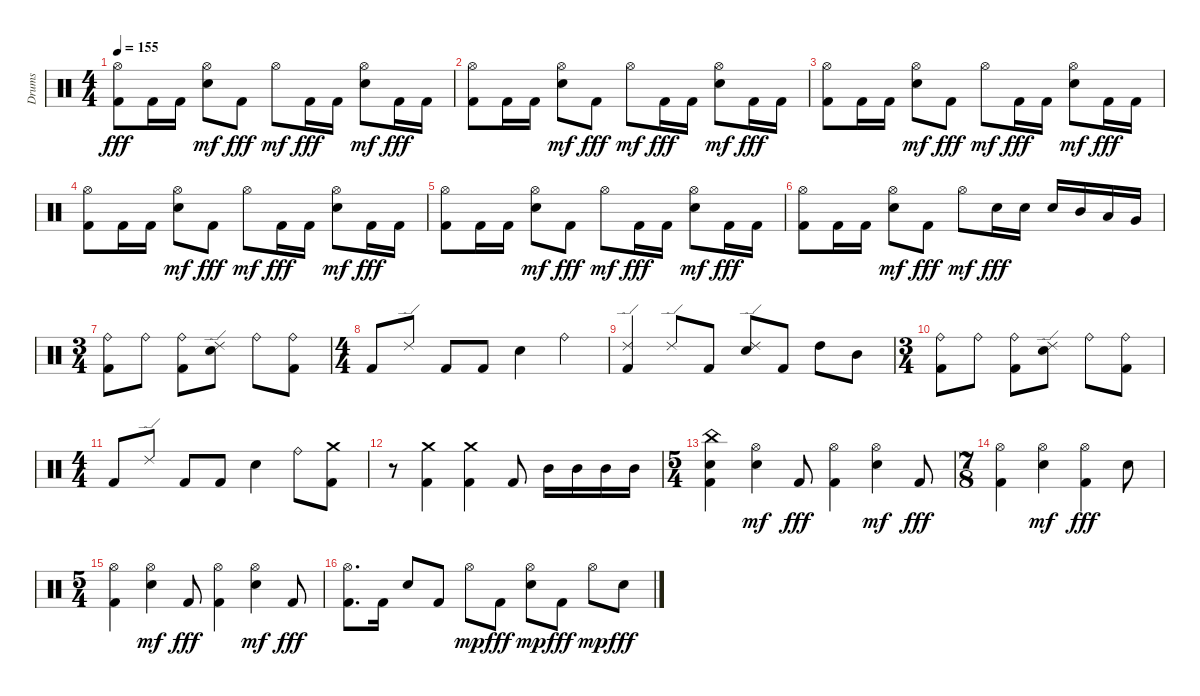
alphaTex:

\track ("Drums" "Drums") {instrument percussion}
\staff {score}
\articulation defaults
\ts (4 4)
\tempo 155
\clef neutral
\ks c
("Hi-Hat (open)" "Kick (hit) 2").8{dy fff} "Kick (hit) 2".16 "Kick (hit) 2".16 ("Electric Snare (hit)" "Hi-Hat (open)").8{dy mf} "Kick (hit) 2".8{dy fff} "Hi-Hat (open)".8{dy mf} "Kick (hit) 2".16{dy fff} "Kick (hit) 2".16 ("Electric Snare (hit)" "Hi-Hat (open)").8{dy mf} "Kick (hit) 2".16{dy fff} "Kick (hit) 2".16 |
("Hi-Hat (open)" "Kick (hit) 2").8 "Kick (hit) 2".16 "Kick (hit) 2".16 ("Electric Snare (hit)" "Hi-Hat (open)").8{dy mf} "Kick (hit) 2".8{dy fff} "Hi-Hat (open)".8{dy mf} "Kick (hit) 2".16{dy fff} "Kick (hit) 2".16 ("Electric Snare (hit)" "Hi-Hat (open)").8{dy mf} "Kick (hit) 2".16{dy fff} "Kick (hit) 2".16 |
("Hi-Hat (open)" "Kick (hit) 2").8 "Kick (hit) 2".16 "Kick (hit) 2".16 ("Electric Snare (hit)" "Hi-Hat (open)").8{dy mf} "Kick (hit) 2".8{dy fff} "Hi-Hat (open)".8{dy mf} "Kick (hit) 2".16{dy fff} "Kick (hit) 2".16 ("Electric Snare (hit)" "Hi-Hat (open)").8{dy mf} "Kick (hit) 2".16{dy fff} "Kick (hit) 2".16 |
("Hi-Hat (open)" "Kick (hit) 2").8 "Kick (hit) 2".16 "Kick (hit) 2".16 ("Electric Snare (hit)" "Hi-Hat (open)").8{dy mf} "Kick (hit) 2".8{dy fff} "Hi-Hat (open)".8{dy mf} "Kick (hit) 2".16{dy fff} "Kick (hit) 2".16 ("Electric Snare (hit)" "Hi-Hat (open)").8{dy mf} "Kick (hit) 2".16{dy fff} "Kick (hit) 2".16 |
("Hi-Hat (open)" "Kick (hit) 2").8 "Kick (hit) 2".16 "Kick (hit) 2".16 ("Electric Snare (hit)" "Hi-Hat (open)").8{dy mf} "Kick (hit) 2".8{dy fff} "Hi-Hat (open)".8{dy mf} "Kick (hit) 2".16{dy fff} "Kick (hit) 2".16 ("Electric Snare (hit)" "Hi-Hat (open)").8{dy mf} "Kick (hit) 2".16{dy fff} "Kick (hit) 2".16 |
("Hi-Hat (open)" "Kick (hit) 2").8 "Kick (hit) 2".16 "Kick (hit) 2".16 ("Electric Snare (hit)" "Hi-Hat (open)").8{dy mf} "Kick (hit) 2".8{dy fff} "Hi-Hat (open)".8{dy mf} "Electric Snare (hit)".16{dy fff} "Electric Snare (hit)".16 "Electric Snare (hit)".16 "Mid Tom (hit)".16 "Low Tom (hit)".16 "Very Low Tom (hit)".16 |
\ts (3 4)
("Ride (bell)" "Kick (hit) 2").8 "Ride (bell)".8 ("Ride (bell)" "Kick (hit) 2").8 ("Electric Snare (hit)" "Ride (edge) 2").8 "Ride (bell)".8 ("Ride (bell)" "Kick (hit) 2").8 |
\ts (4 4)
"Kick (hit) 2".8 "Ride (edge) 2".8 "Kick (hit) 2".8 "Kick (hit) 2".8 "Electric Snare (hit)".4 "Ride (bell)".4 |
("Ride (edge) 2" "Kick (hit) 2").4 "Ride (edge) 2".8 "Kick (hit) 2".8 ("Electric Snare (hit)" "Ride (edge) 2").8 "Kick (hit) 2".8 "High Tom (hit)".8 "Mid Tom (hit)".8 |
\ts (3 4)
("Ride (bell)" "Kick (hit) 2").8 "Ride (bell)".8 ("Ride (bell)" "Kick (hit) 2").8 ("Electric Snare (hit)" "Ride (edge) 2").8 "Ride (bell)".8 ("Ride (bell)" "Kick (hit) 2").8 |
\ts (4 4)
"Kick (hit) 2".8 "Ride (edge) 2".8 "Kick (hit) 2".8 "Kick (hit) 2".8 "Electric Snare (hit)".4 "Ride (bell)".8 ("Crash medium (hit)" "Kick (hit) 2").8 |
r.8 ("Crash medium (hit)" "Kick (hit) 2").4 ("Crash medium (hit)" "Kick (hit) 2").4 "Kick (hit) 2".8 "Mid Tom (hit)".16 "Mid Tom (hit)".16 "Mid Tom (hit)".16 "Mid Tom (hit)".16 |
\ts (5 4)
("Electric Snare (hit)" "China (hit)" "Kick (hit) 2").4 ("Electric Snare (hit)" "Hi-Hat (open)").4{dy mf} "Kick (hit) 2".8{dy fff} ("Hi-Hat (open)" "Kick (hit) 2").4 ("Electric Snare (hit)" "Hi-Hat (open)").4{dy mf} "Kick (hit) 2".8{dy fff} |
\ts (7 8)
("Hi-Hat (open)" "Kick (hit) 2").4 ("Electric Snare (hit)" "Hi-Hat (open)").4{dy mf} ("Hi-Hat (open)" "Kick (hit) 2").4{dy fff} "Electric Snare (hit)".8 |
\ts (5 4)
("Hi-Hat (open)" "Kick (hit) 2").4 ("Electric Snare (hit)" "Hi-Hat (open)").4{dy mf} "Kick (hit) 2".8{dy fff} ("Hi-Hat (open)" "Kick (hit) 2").4 ("Electric Snare (hit)" "Hi-Hat (open)").4{dy mf} "Kick (hit) 2".8{dy fff} |
("Hi-Hat (open)" "Kick (hit) 2").8{d} "Kick (hit) 2".16 "Electric Snare (hit)".8 "Kick (hit) 2".8 "Hi-Hat (open)".8{dy mp} "Kick (hit) 2".8{dy fff} ("Electric Snare (hit)" "Hi-Hat (open)").8{dy mp} "Kick (hit) 2".8{dy fff} "Hi-Hat (open)".8{dy mp} "Electric Snare (hit)".8{dy fff}
